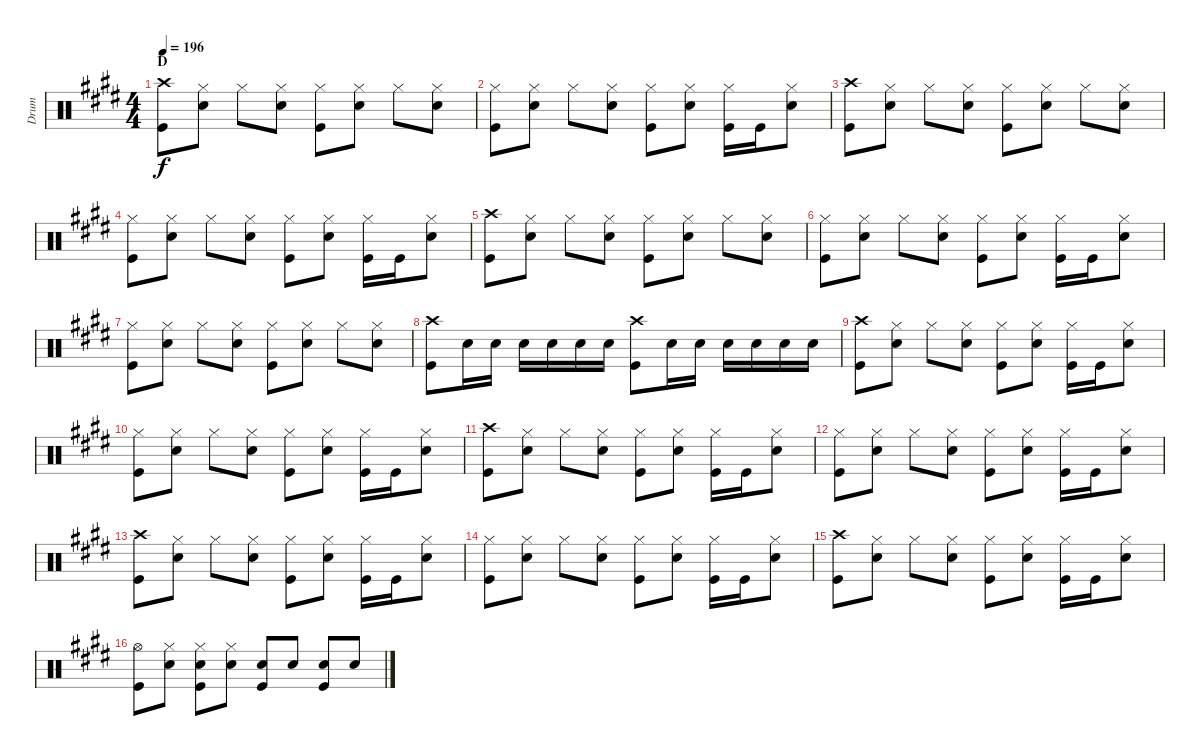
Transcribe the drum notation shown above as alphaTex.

\track ("Drum" "Drum") {instrument percussion}
\staff {score}
\articulation defaults
\ts (4 4)
\section ("" "D")
\tempo 196
\clef neutral
\ks e
("Crash high (hit)" "Kick (hit)").8{dy f} ("Hi-Hat (closed)" "Snare (hit) 2").8 "Hi-Hat (closed)".8 ("Hi-Hat (closed)" "Snare (hit) 2").8 ("Hi-Hat (closed)" "Kick (hit)").8 ("Hi-Hat (closed)" "Snare (hit) 2").8 "Hi-Hat (closed)".8 ("Hi-Hat (closed)" "Snare (hit) 2").8 |
("Hi-Hat (closed)" "Kick (hit)").8 ("Hi-Hat (closed)" "Snare (hit) 2").8 "Hi-Hat (closed)".8 ("Hi-Hat (closed)" "Snare (hit) 2").8 ("Hi-Hat (closed)" "Kick (hit)").8 ("Hi-Hat (closed)" "Snare (hit) 2").8 ("Hi-Hat (closed)" "Kick (hit)").16 "Kick (hit)".16 ("Hi-Hat (closed)" "Snare (hit) 2").8 |
("Crash high (hit)" "Kick (hit)").8 ("Hi-Hat (closed)" "Snare (hit) 2").8 "Hi-Hat (closed)".8 ("Hi-Hat (closed)" "Snare (hit) 2").8 ("Hi-Hat (closed)" "Kick (hit)").8 ("Hi-Hat (closed)" "Snare (hit) 2").8 "Hi-Hat (closed)".8 ("Hi-Hat (closed)" "Snare (hit) 2").8 |
("Hi-Hat (closed)" "Kick (hit)").8 ("Hi-Hat (closed)" "Snare (hit) 2").8 "Hi-Hat (closed)".8 ("Hi-Hat (closed)" "Snare (hit) 2").8 ("Hi-Hat (closed)" "Kick (hit)").8 ("Hi-Hat (closed)" "Snare (hit) 2").8 ("Hi-Hat (closed)" "Kick (hit)").16 "Kick (hit)".16 ("Hi-Hat (closed)" "Snare (hit) 2").8 |
("Crash high (hit)" "Kick (hit)").8 ("Hi-Hat (closed)" "Snare (hit) 2").8 "Hi-Hat (closed)".8 ("Hi-Hat (closed)" "Snare (hit) 2").8 ("Hi-Hat (closed)" "Kick (hit)").8 ("Hi-Hat (closed)" "Snare (hit) 2").8 "Hi-Hat (closed)".8 ("Hi-Hat (closed)" "Snare (hit) 2").8 |
("Hi-Hat (closed)" "Kick (hit)").8 ("Hi-Hat (closed)" "Snare (hit) 2").8 "Hi-Hat (closed)".8 ("Hi-Hat (closed)" "Snare (hit) 2").8 ("Hi-Hat (closed)" "Kick (hit)").8 ("Hi-Hat (closed)" "Snare (hit) 2").8 ("Hi-Hat (closed)" "Kick (hit)").16 "Kick (hit)".16 ("Hi-Hat (closed)" "Snare (hit) 2").8 |
("Hi-Hat (closed)" "Kick (hit)").8 ("Hi-Hat (closed)" "Snare (hit) 2").8 "Hi-Hat (closed)".8 ("Hi-Hat (closed)" "Snare (hit) 2").8 ("Hi-Hat (closed)" "Kick (hit)").8 ("Hi-Hat (closed)" "Snare (hit) 2").8 "Hi-Hat (closed)".8 ("Hi-Hat (closed)" "Snare (hit) 2").8 |
("Crash high (hit)" "Kick (hit)").8 "Snare (hit) 2".16 "Snare (hit) 2".16 "Snare (hit) 2".16 "Snare (hit) 2".16 "Snare (hit) 2".16 "Snare (hit) 2".16 ("Crash high (hit)" "Kick (hit)").8 "Snare (hit) 2".16 "Snare (hit) 2".16 "Snare (hit) 2".16 "Snare (hit) 2".16 "Snare (hit) 2".16 "Snare (hit) 2".16 |
("Crash high (hit)" "Kick (hit)").8 ("Hi-Hat (closed)" "Snare (hit) 2").8 "Hi-Hat (closed)".8 ("Hi-Hat (closed)" "Snare (hit) 2").8 ("Hi-Hat (closed)" "Kick (hit)").8 ("Hi-Hat (closed)" "Snare (hit) 2").8 ("Hi-Hat (closed)" "Kick (hit)").16 "Kick (hit)".16 ("Hi-Hat (closed)" "Snare (hit) 2").8 |
("Hi-Hat (closed)" "Kick (hit)").8 ("Hi-Hat (closed)" "Snare (hit) 2").8 "Hi-Hat (closed)".8 ("Hi-Hat (closed)" "Snare (hit) 2").8 ("Hi-Hat (closed)" "Kick (hit)").8 ("Hi-Hat (closed)" "Snare (hit) 2").8 ("Hi-Hat (closed)" "Kick (hit)").16 "Kick (hit)".16 ("Hi-Hat (closed)" "Snare (hit) 2").8 |
("Crash high (hit)" "Kick (hit)").8 ("Hi-Hat (closed)" "Snare (hit) 2").8 "Hi-Hat (closed)".8 ("Hi-Hat (closed)" "Snare (hit) 2").8 ("Hi-Hat (closed)" "Kick (hit)").8 ("Hi-Hat (closed)" "Snare (hit) 2").8 ("Hi-Hat (closed)" "Kick (hit)").16 "Kick (hit)".16 ("Hi-Hat (closed)" "Snare (hit) 2").8 |
("Hi-Hat (closed)" "Kick (hit)").8 ("Hi-Hat (closed)" "Snare (hit) 2").8 "Hi-Hat (closed)".8 ("Hi-Hat (closed)" "Snare (hit) 2").8 ("Hi-Hat (closed)" "Kick (hit)").8 ("Hi-Hat (closed)" "Snare (hit) 2").8 ("Hi-Hat (closed)" "Kick (hit)").16 "Kick (hit)".16 ("Hi-Hat (closed)" "Snare (hit) 2").8 |
("Crash high (hit)" "Kick (hit)").8 ("Hi-Hat (closed)" "Snare (hit) 2").8 "Hi-Hat (closed)".8 ("Hi-Hat (closed)" "Snare (hit) 2").8 ("Hi-Hat (closed)" "Kick (hit)").8 ("Hi-Hat (closed)" "Snare (hit) 2").8 ("Hi-Hat (closed)" "Kick (hit)").16 "Kick (hit)".16 ("Hi-Hat (closed)" "Snare (hit) 2").8 |
("Hi-Hat (closed)" "Kick (hit)").8 ("Hi-Hat (closed)" "Snare (hit) 2").8 "Hi-Hat (closed)".8 ("Hi-Hat (closed)" "Snare (hit) 2").8 ("Hi-Hat (closed)" "Kick (hit)").8 ("Hi-Hat (closed)" "Snare (hit) 2").8 ("Hi-Hat (closed)" "Kick (hit)").16 "Kick (hit)".16 ("Hi-Hat (closed)" "Snare (hit) 2").8 |
("Crash high (hit)" "Kick (hit)").8 ("Hi-Hat (closed)" "Snare (hit) 2").8 "Hi-Hat (closed)".8 ("Hi-Hat (closed)" "Snare (hit) 2").8 ("Hi-Hat (closed)" "Kick (hit)").8 ("Hi-Hat (closed)" "Snare (hit) 2").8 ("Hi-Hat (closed)" "Kick (hit)").16 "Kick (hit)".16 ("Hi-Hat (closed)" "Snare (hit) 2").8 |
("Hi-Hat (open)" "Kick (hit)").8 ("Hi-Hat (closed)" "Snare (hit) 2").8 ("Hi-Hat (closed)" "Snare (hit) 2" "Kick (hit)").8 ("Hi-Hat (closed)" "Snare (hit) 2").8 ("Snare (hit) 2" "Kick (hit)").8 "Snare (hit) 2".8 ("Snare (hit) 2" "Kick (hit)").8 "Snare (hit) 2".8
